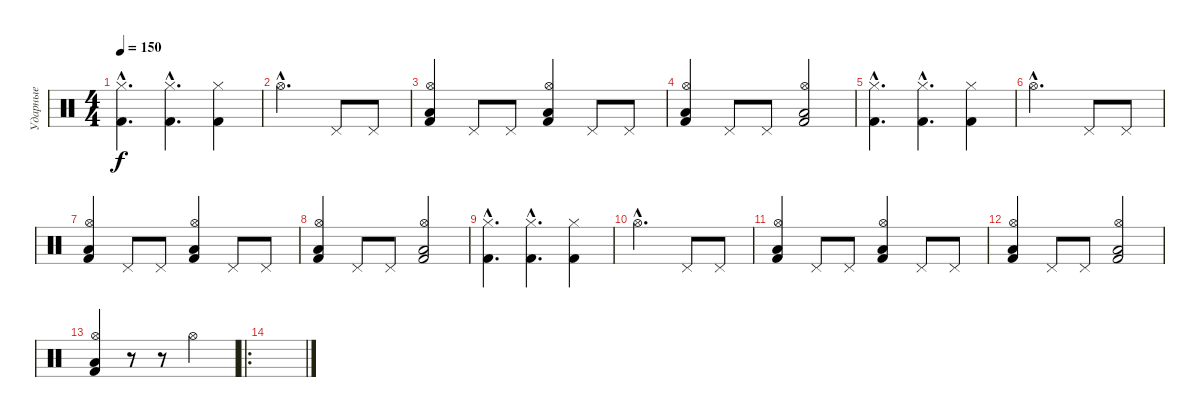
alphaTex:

\track ("Ударные" "Ударные") {instrument percussion}
\staff {score}
\articulation defaults
\ts (4 4)
\tempo 150
\clef neutral
\ks c
("Hi-Hat (closed)"{hac} "Kick (hit) 2"{hac}).4{d dy f} ("Kick (hit) 2"{hac} "Hi-Hat (closed)"{hac}).4{d} ("Hi-Hat (closed)" "Kick (hit) 2").4 |
"Hi-Hat (open)"{hac}.2{d} "Pedal Hi-Hat (hit)".8 "Pedal Hi-Hat (hit)".8 |
("Low Floor Tom (hit)" "Kick (hit) 2" "Hi-Hat (open)").4 "Pedal Hi-Hat (hit)".8 "Pedal Hi-Hat (hit)".8 ("Low Floor Tom (hit)" "Hi-Hat (open)" "Kick (hit) 2").4 "Pedal Hi-Hat (hit)".8 "Pedal Hi-Hat (hit)".8 |
("Low Floor Tom (hit)" "Kick (hit) 2" "Hi-Hat (open)").4 "Pedal Hi-Hat (hit)".8 "Pedal Hi-Hat (hit)".8 ("Low Floor Tom (hit)" "Kick (hit) 2" "Hi-Hat (open)").2 |
("Hi-Hat (closed)"{hac} "Kick (hit) 2"{hac}).4{d} ("Kick (hit) 2"{hac} "Hi-Hat (closed)"{hac}).4{d} ("Hi-Hat (closed)" "Kick (hit) 2").4 |
"Hi-Hat (open)"{hac}.2{d} "Pedal Hi-Hat (hit)".8 "Pedal Hi-Hat (hit)".8 |
("Low Floor Tom (hit)" "Kick (hit) 2" "Hi-Hat (open)").4 "Pedal Hi-Hat (hit)".8 "Pedal Hi-Hat (hit)".8 ("Low Floor Tom (hit)" "Hi-Hat (open)" "Kick (hit) 2").4 "Pedal Hi-Hat (hit)".8 "Pedal Hi-Hat (hit)".8 |
("Low Floor Tom (hit)" "Kick (hit) 2" "Hi-Hat (open)").4 "Pedal Hi-Hat (hit)".8 "Pedal Hi-Hat (hit)".8 ("Low Floor Tom (hit)" "Kick (hit) 2" "Hi-Hat (open)").2 |
("Hi-Hat (closed)"{hac} "Kick (hit) 2"{hac}).4{d} ("Kick (hit) 2"{hac} "Hi-Hat (closed)"{hac}).4{d} ("Hi-Hat (closed)" "Kick (hit) 2").4 |
"Hi-Hat (open)"{hac}.2{d} "Pedal Hi-Hat (hit)".8 "Pedal Hi-Hat (hit)".8 |
("Low Floor Tom (hit)" "Kick (hit) 2" "Hi-Hat (open)").4 "Pedal Hi-Hat (hit)".8 "Pedal Hi-Hat (hit)".8 ("Low Floor Tom (hit)" "Hi-Hat (open)" "Kick (hit) 2").4 "Pedal Hi-Hat (hit)".8 "Pedal Hi-Hat (hit)".8 |
("Low Floor Tom (hit)" "Kick (hit) 2" "Hi-Hat (open)").4 "Pedal Hi-Hat (hit)".8 "Pedal Hi-Hat (hit)".8 ("Low Floor Tom (hit)" "Kick (hit) 2" "Hi-Hat (open)").2 |
("Low Floor Tom (hit)" "Kick (hit) 2" "Hi-Hat (open)").4 r.8 r.8 "Hi-Hat (open)".2 |
\ro
